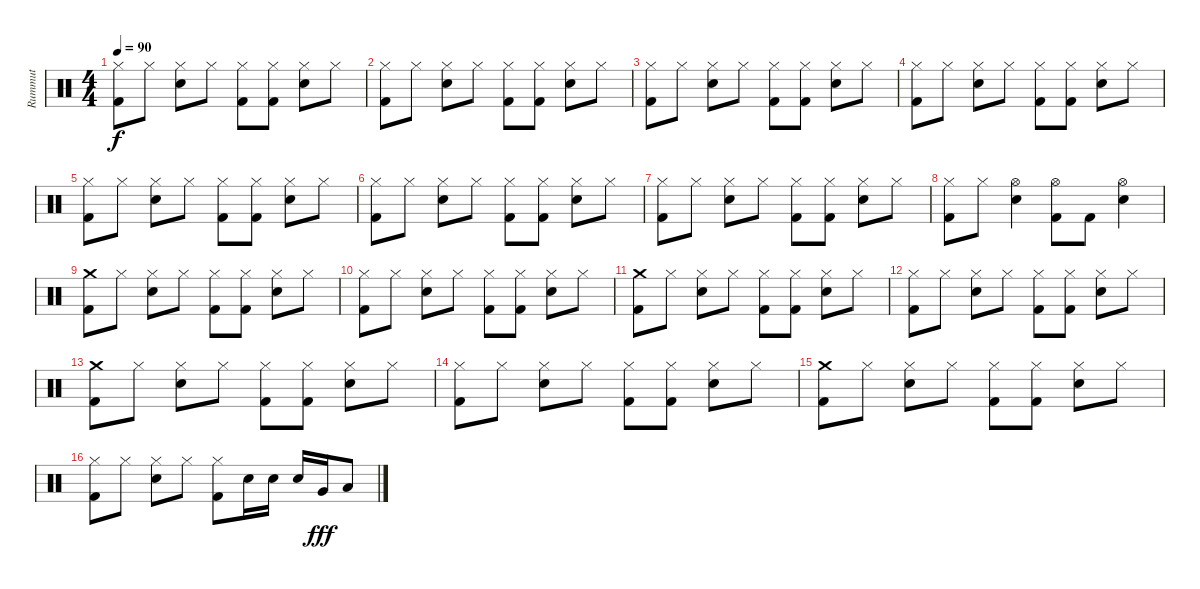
\track ("Rummut" "Rummut") {instrument percussion}
\staff {score}
\articulation defaults
\ts (4 4)
\tempo 90
\clef neutral
\ks c
("Kick (hit) 2" "Hi-Hat (closed)").8{dy f} "Hi-Hat (closed)".8 ("Hi-Hat (closed)" "Snare (hit) 2").8 "Hi-Hat (closed)".8 ("Kick (hit) 2" "Hi-Hat (closed)").8 ("Kick (hit) 2" "Hi-Hat (closed)").8 ("Hi-Hat (closed)" "Snare (hit) 2").8 "Hi-Hat (closed)".8 |
("Kick (hit) 2" "Hi-Hat (closed)").8 "Hi-Hat (closed)".8 ("Hi-Hat (closed)" "Snare (hit) 2").8 "Hi-Hat (closed)".8 ("Kick (hit) 2" "Hi-Hat (closed)").8 ("Kick (hit) 2" "Hi-Hat (closed)").8 ("Hi-Hat (closed)" "Snare (hit) 2").8 "Hi-Hat (closed)".8 |
("Kick (hit) 2" "Hi-Hat (closed)").8 "Hi-Hat (closed)".8 ("Hi-Hat (closed)" "Snare (hit) 2").8 "Hi-Hat (closed)".8 ("Kick (hit) 2" "Hi-Hat (closed)").8 ("Kick (hit) 2" "Hi-Hat (closed)").8 ("Hi-Hat (closed)" "Snare (hit) 2").8 "Hi-Hat (closed)".8 |
("Kick (hit) 2" "Hi-Hat (closed)").8 "Hi-Hat (closed)".8 ("Hi-Hat (closed)" "Snare (hit) 2").8 "Hi-Hat (closed)".8 ("Kick (hit) 2" "Hi-Hat (closed)").8 ("Kick (hit) 2" "Hi-Hat (closed)").8 ("Hi-Hat (closed)" "Snare (hit) 2").8 "Hi-Hat (closed)".8 |
("Kick (hit) 2" "Hi-Hat (closed)").8 "Hi-Hat (closed)".8 ("Hi-Hat (closed)" "Snare (hit) 2").8 "Hi-Hat (closed)".8 ("Kick (hit) 2" "Hi-Hat (closed)").8 ("Kick (hit) 2" "Hi-Hat (closed)").8 ("Hi-Hat (closed)" "Snare (hit) 2").8 "Hi-Hat (closed)".8 |
("Kick (hit) 2" "Hi-Hat (closed)").8 "Hi-Hat (closed)".8 ("Hi-Hat (closed)" "Snare (hit) 2").8 "Hi-Hat (closed)".8 ("Kick (hit) 2" "Hi-Hat (closed)").8 ("Kick (hit) 2" "Hi-Hat (closed)").8 ("Hi-Hat (closed)" "Snare (hit) 2").8 "Hi-Hat (closed)".8 |
("Kick (hit) 2" "Hi-Hat (closed)").8 "Hi-Hat (closed)".8 ("Hi-Hat (closed)" "Snare (hit) 2").8 "Hi-Hat (closed)".8 ("Kick (hit) 2" "Hi-Hat (closed)").8 ("Kick (hit) 2" "Hi-Hat (closed)").8 ("Hi-Hat (closed)" "Snare (hit) 2").8 "Hi-Hat (closed)".8 |
("Kick (hit) 2" "Hi-Hat (closed)").8 "Hi-Hat (closed)".8 ("Hi-Hat (open)" "Snare (hit) 2").4 ("Kick (hit) 2" "Hi-Hat (open)").8 "Kick (hit) 2".8 ("Hi-Hat (open)" "Snare (hit) 2").4 |
("Kick (hit) 2" "Crash medium (hit)").8 "Hi-Hat (closed)".8 ("Hi-Hat (closed)" "Snare (hit) 2").8 "Hi-Hat (closed)".8 ("Kick (hit) 2" "Hi-Hat (closed)").8 ("Kick (hit) 2" "Hi-Hat (closed)").8 ("Hi-Hat (closed)" "Snare (hit) 2").8 "Hi-Hat (closed)".8 |
("Kick (hit) 2" "Hi-Hat (closed)").8 "Hi-Hat (closed)".8 ("Hi-Hat (closed)" "Snare (hit) 2").8 "Hi-Hat (closed)".8 ("Kick (hit) 2" "Hi-Hat (closed)").8 ("Kick (hit) 2" "Hi-Hat (closed)").8 ("Hi-Hat (closed)" "Snare (hit) 2").8 "Hi-Hat (closed)".8 |
("Kick (hit) 2" "Crash medium (hit)").8 "Hi-Hat (closed)".8 ("Hi-Hat (closed)" "Snare (hit) 2").8 "Hi-Hat (closed)".8 ("Kick (hit) 2" "Hi-Hat (closed)").8 ("Kick (hit) 2" "Hi-Hat (closed)").8 ("Hi-Hat (closed)" "Snare (hit) 2").8 "Hi-Hat (closed)".8 |
("Kick (hit) 2" "Hi-Hat (closed)").8 "Hi-Hat (closed)".8 ("Hi-Hat (closed)" "Snare (hit) 2").8 "Hi-Hat (closed)".8 ("Kick (hit) 2" "Hi-Hat (closed)").8 ("Kick (hit) 2" "Hi-Hat (closed)").8 ("Hi-Hat (closed)" "Snare (hit) 2").8 "Hi-Hat (closed)".8 |
("Kick (hit) 2" "Crash medium (hit)").8 "Hi-Hat (closed)".8 ("Hi-Hat (closed)" "Snare (hit) 2").8 "Hi-Hat (closed)".8 ("Kick (hit) 2" "Hi-Hat (closed)").8 ("Kick (hit) 2" "Hi-Hat (closed)").8 ("Hi-Hat (closed)" "Snare (hit) 2").8 "Hi-Hat (closed)".8 |
("Kick (hit) 2" "Hi-Hat (closed)").8 "Hi-Hat (closed)".8 ("Hi-Hat (closed)" "Snare (hit) 2").8 "Hi-Hat (closed)".8 ("Kick (hit) 2" "Hi-Hat (closed)").8 ("Kick (hit) 2" "Hi-Hat (closed)").8 ("Hi-Hat (closed)" "Snare (hit) 2").8 "Hi-Hat (closed)".8 |
("Kick (hit) 2" "Crash medium (hit)").8 "Hi-Hat (closed)".8 ("Hi-Hat (closed)" "Snare (hit) 2").8 "Hi-Hat (closed)".8 ("Kick (hit) 2" "Hi-Hat (closed)").8 ("Kick (hit) 2" "Hi-Hat (closed)").8 ("Hi-Hat (closed)" "Snare (hit) 2").8 "Hi-Hat (closed)".8 |
("Kick (hit) 2" "Hi-Hat (closed)").8 "Hi-Hat (closed)".8 ("Hi-Hat (closed)" "Snare (hit) 2").8 "Hi-Hat (closed)".8 ("Kick (hit) 2" "Hi-Hat (closed)").8 "Snare (hit) 2".16 "Snare (hit) 2".16 "Snare (hit) 2".16 "Very Low Tom (hit)".16{dy fff} "Low Floor Tom (hit)".8
